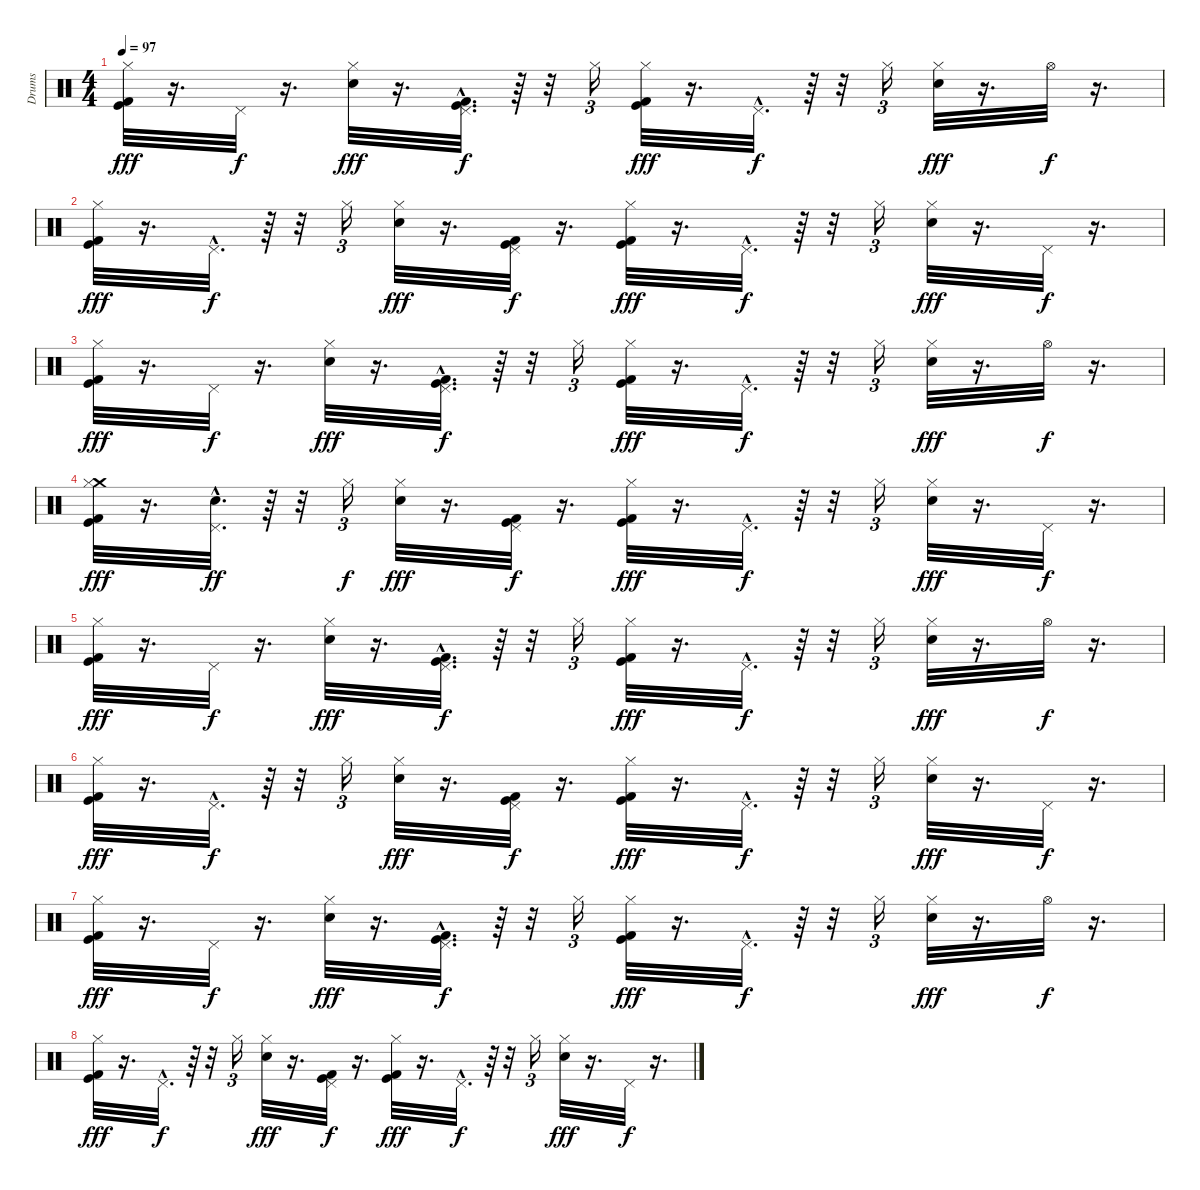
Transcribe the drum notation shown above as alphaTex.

\track ("Drums" "Drums") {instrument percussion}
\staff {score}
\articulation defaults
\ts (4 4)
\tempo 97
\clef neutral
\ks c
("Kick (hit)" "Kick (hit) 2" "Hi-Hat (closed)").32{dy fff} r.16{d} "Pedal Hi-Hat (hit)".32{dy f} r.16{d} ("Hi-Hat (closed)" "Snare (hit) 2").32{dy fff} r.16{d} ("Kick (hit) 2"{hac} "Kick (hit)"{hac} "Pedal Hi-Hat (hit)"{hac}).32{d dy f} r.64 r.32 "Hi-Hat (closed)".16{tu (3 2)} ("Kick (hit)" "Kick (hit) 2" "Hi-Hat (closed)").32{dy fff} r.16{d} "Pedal Hi-Hat (hit)"{hac}.32{d dy f} r.64 r.32 "Hi-Hat (closed)".16{tu (3 2)} ("Hi-Hat (closed)" "Snare (hit) 2").32{dy fff} r.16{d} "Hi-Hat (open)".32{dy f} r.16{d} |
("Kick (hit)" "Kick (hit) 2" "Hi-Hat (closed)").32{dy fff} r.16{d} "Pedal Hi-Hat (hit)"{hac}.32{d dy f} r.64 r.32 "Hi-Hat (closed)".16{tu (3 2)} ("Hi-Hat (closed)" "Snare (hit) 2").32{dy fff} r.16{d} ("Kick (hit) 2" "Kick (hit)" "Pedal Hi-Hat (hit)").32{dy f} r.16{d} ("Kick (hit)" "Kick (hit) 2" "Hi-Hat (closed)").32{dy fff} r.16{d} "Pedal Hi-Hat (hit)"{hac}.32{d dy f} r.64 r.32 "Hi-Hat (closed)".16{tu (3 2)} ("Hi-Hat (closed)" "Snare (hit) 2").32{dy fff} r.16{d} "Pedal Hi-Hat (hit)".32{dy f} r.16{d} |
("Kick (hit)" "Kick (hit) 2" "Hi-Hat (closed)").32{dy fff} r.16{d} "Pedal Hi-Hat (hit)".32{dy f} r.16{d} ("Hi-Hat (closed)" "Snare (hit) 2").32{dy fff} r.16{d} ("Kick (hit) 2"{hac} "Kick (hit)"{hac} "Pedal Hi-Hat (hit)"{hac}).32{d dy f} r.64 r.32 "Hi-Hat (closed)".16{tu (3 2)} ("Kick (hit)" "Kick (hit) 2" "Hi-Hat (closed)").32{dy fff} r.16{d} "Pedal Hi-Hat (hit)"{hac}.32{d dy f} r.64 r.32 "Hi-Hat (closed)".16{tu (3 2)} ("Hi-Hat (closed)" "Snare (hit) 2").32{dy fff} r.16{d} "Hi-Hat (open)".32{dy f} r.16{d} |
("Crash medium (hit)" "Kick (hit)" "Kick (hit) 2" "Hi-Hat (closed)").32{dy fff} r.16{d} ("Snare (hit) 2"{hac} "Pedal Hi-Hat (hit)"{hac}).32{d dy ff} r.64 r.32 "Hi-Hat (closed)".16{tu (3 2) dy f} ("Hi-Hat (closed)" "Snare (hit) 2").32{dy fff} r.16{d} ("Kick (hit) 2" "Kick (hit)" "Pedal Hi-Hat (hit)").32{dy f} r.16{d} ("Kick (hit)" "Kick (hit) 2" "Hi-Hat (closed)").32{dy fff} r.16{d} "Pedal Hi-Hat (hit)"{hac}.32{d dy f} r.64 r.32 "Hi-Hat (closed)".16{tu (3 2)} ("Hi-Hat (closed)" "Snare (hit) 2").32{dy fff} r.16{d} "Pedal Hi-Hat (hit)".32{dy f} r.16{d} |
("Kick (hit)" "Kick (hit) 2" "Hi-Hat (closed)").32{dy fff} r.16{d} "Pedal Hi-Hat (hit)".32{dy f} r.16{d} ("Hi-Hat (closed)" "Snare (hit) 2").32{dy fff} r.16{d} ("Kick (hit) 2"{hac} "Kick (hit)"{hac} "Pedal Hi-Hat (hit)"{hac}).32{d dy f} r.64 r.32 "Hi-Hat (closed)".16{tu (3 2)} ("Kick (hit)" "Kick (hit) 2" "Hi-Hat (closed)").32{dy fff} r.16{d} "Pedal Hi-Hat (hit)"{hac}.32{d dy f} r.64 r.32 "Hi-Hat (closed)".16{tu (3 2)} ("Hi-Hat (closed)" "Snare (hit) 2").32{dy fff} r.16{d} "Hi-Hat (open)".32{dy f} r.16{d} |
("Kick (hit)" "Kick (hit) 2" "Hi-Hat (closed)").32{dy fff} r.16{d} "Pedal Hi-Hat (hit)"{hac}.32{d dy f} r.64 r.32 "Hi-Hat (closed)".16{tu (3 2)} ("Hi-Hat (closed)" "Snare (hit) 2").32{dy fff} r.16{d} ("Kick (hit) 2" "Kick (hit)" "Pedal Hi-Hat (hit)").32{dy f} r.16{d} ("Kick (hit)" "Kick (hit) 2" "Hi-Hat (closed)").32{dy fff} r.16{d} "Pedal Hi-Hat (hit)"{hac}.32{d dy f} r.64 r.32 "Hi-Hat (closed)".16{tu (3 2)} ("Hi-Hat (closed)" "Snare (hit) 2").32{dy fff} r.16{d} "Pedal Hi-Hat (hit)".32{dy f} r.16{d} |
("Kick (hit)" "Kick (hit) 2" "Hi-Hat (closed)").32{dy fff} r.16{d} "Pedal Hi-Hat (hit)".32{dy f} r.16{d} ("Hi-Hat (closed)" "Snare (hit) 2").32{dy fff} r.16{d} ("Kick (hit) 2"{hac} "Kick (hit)"{hac} "Pedal Hi-Hat (hit)"{hac}).32{d dy f} r.64 r.32 "Hi-Hat (closed)".16{tu (3 2)} ("Kick (hit)" "Kick (hit) 2" "Hi-Hat (closed)").32{dy fff} r.16{d} "Pedal Hi-Hat (hit)"{hac}.32{d dy f} r.64 r.32 "Hi-Hat (closed)".16{tu (3 2)} ("Hi-Hat (closed)" "Snare (hit) 2").32{dy fff} r.16{d} "Hi-Hat (open)".32{dy f} r.16{d} |
("Kick (hit)" "Kick (hit) 2" "Hi-Hat (closed)").32{dy fff} r.16{d} "Pedal Hi-Hat (hit)"{hac}.32{d dy f} r.64 r.32 "Hi-Hat (closed)".16{tu (3 2)} ("Hi-Hat (closed)" "Snare (hit) 2").32{dy fff} r.16{d} ("Kick (hit) 2" "Kick (hit)" "Pedal Hi-Hat (hit)").32{dy f} r.16{d} ("Kick (hit)" "Kick (hit) 2" "Hi-Hat (closed)").32{dy fff} r.16{d} "Pedal Hi-Hat (hit)"{hac}.32{d dy f} r.64 r.32 "Hi-Hat (closed)".16{tu (3 2)} ("Hi-Hat (closed)" "Snare (hit) 2").32{dy fff} r.16{d} "Pedal Hi-Hat (hit)".32{dy f} r.16{d}
